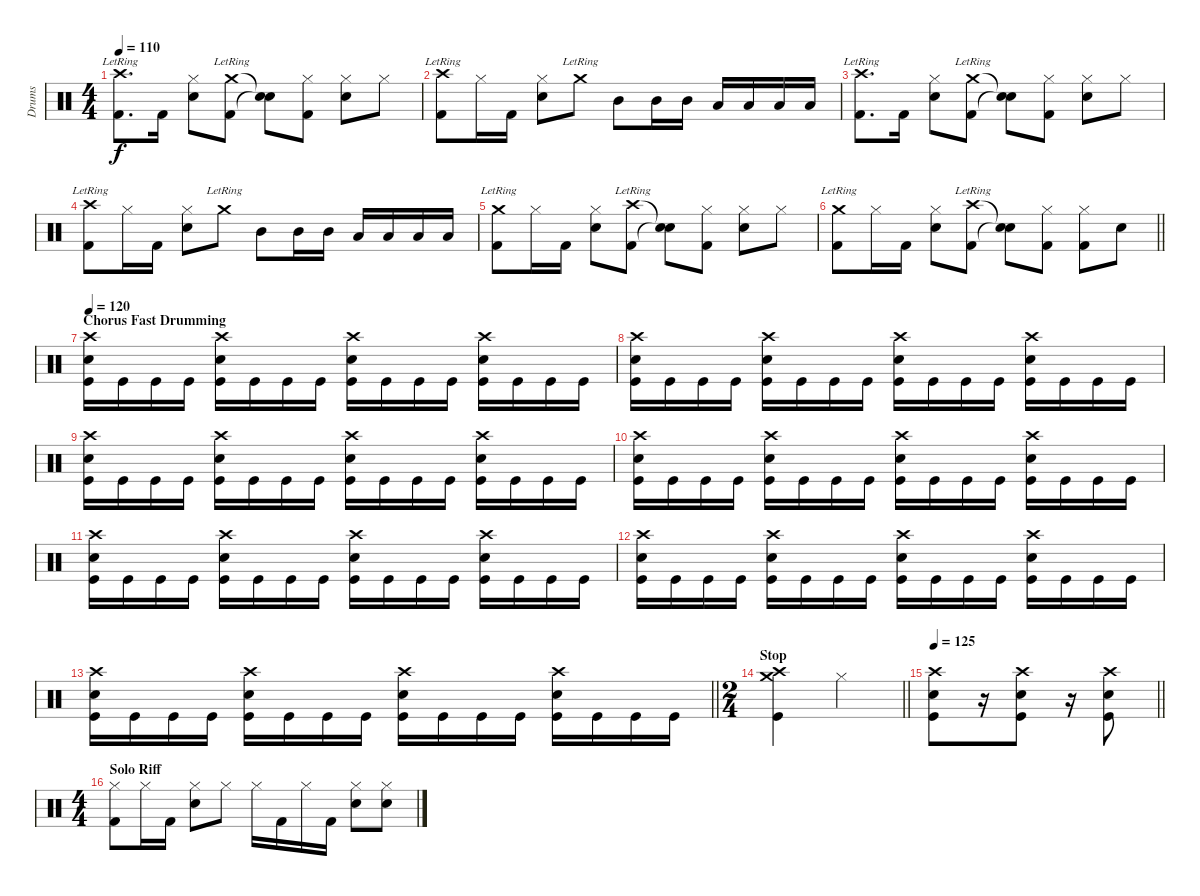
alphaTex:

\track ("Drums" "Drums") {instrument percussion}
\staff {score}
\articulation defaults
\ts (4 4)
\tempo 110
\clef neutral
\ks c
("Crash high (hit)"{lr} "Kick (hit) 2").8{d dy f} "Kick (hit) 2".16 ("Hi-Hat (closed)" "Snare (hit) 2").8 ("Crash medium (hit)"{lr} "Kick (hit) 2").8 ("Snare (hit)"{t} "Snare (hit)"{t}).8 ("Hi-Hat (closed)" "Kick (hit) 2").8 ("Hi-Hat (closed)" "Snare (hit) 2").8 "Hi-Hat (closed)".8 |
("Crash high (hit)"{lr} "Kick (hit) 2").8 "Hi-Hat (closed)".16 "Kick (hit) 2".16 ("Hi-Hat (closed)" "Snare (hit) 2").8 "Crash medium (hit)"{lr}.8 "Mid Tom (hit)".8 "Mid Tom (hit)".16 "Mid Tom (hit)".16 "Low Tom (hit)".16 "Low Tom (hit)".16 "Low Tom (hit)".16 "Low Tom (hit)".16 |
("Crash high (hit)"{lr} "Kick (hit) 2").8{d} "Kick (hit) 2".16 ("Hi-Hat (closed)" "Snare (hit) 2").8 ("Crash medium (hit)"{lr} "Kick (hit) 2").8 ("Snare (hit)"{t} "Snare (hit)"{t}).8 ("Hi-Hat (closed)" "Kick (hit) 2").8 ("Hi-Hat (closed)" "Snare (hit) 2").8 "Hi-Hat (closed)".8 |
("Crash high (hit)"{lr} "Kick (hit) 2").8 "Hi-Hat (closed)".16 "Kick (hit) 2".16 ("Hi-Hat (closed)" "Snare (hit) 2").8 "Crash medium (hit)"{lr}.8 "Mid Tom (hit)".8 "Mid Tom (hit)".16 "Mid Tom (hit)".16 "Low Tom (hit)".16 "Low Tom (hit)".16 "Low Tom (hit)".16 "Low Tom (hit)".16 |
("Crash medium (hit)"{lr} "Kick (hit) 2").8 "Hi-Hat (closed)".16 "Kick (hit) 2".16 ("Hi-Hat (closed)" "Snare (hit) 2").8 ("Crash high (hit)"{lr} "Kick (hit) 2").8 ("Snare (hit)"{t} "Snare (hit)"{t}).8 ("Hi-Hat (closed)" "Kick (hit) 2").8 ("Hi-Hat (closed)" "Snare (hit) 2").8 "Hi-Hat (closed)".8 |
\barLineRight lightlight
("Crash medium (hit)"{lr} "Kick (hit) 2").8 "Hi-Hat (closed)".16 "Kick (hit) 2".16 ("Hi-Hat (closed)" "Snare (hit) 2").8 ("Crash high (hit)"{lr} "Kick (hit) 2").8 ("Snare (hit)"{t} "Snare (hit)"{t}).8 ("Hi-Hat (closed)" "Kick (hit) 2").8 ("Hi-Hat (closed)" "Kick (hit) 2").8 "Snare (hit) 2".8 |
\section ("" "Chorus Fast Drumming")
\tempo 120
("Crash high (hit)" "Electric Snare (hit)" "Kick (hit)").16 "Kick (hit)".16 "Kick (hit)".16 "Kick (hit)".16 ("Crash high (hit)" "Electric Snare (hit)" "Kick (hit)").16 "Kick (hit)".16 "Kick (hit)".16 "Kick (hit)".16 ("Crash high (hit)" "Electric Snare (hit)" "Kick (hit)").16 "Kick (hit)".16 "Kick (hit)".16 "Kick (hit)".16 ("Crash high (hit)" "Electric Snare (hit)" "Kick (hit)").16 "Kick (hit)".16 "Kick (hit)".16 "Kick (hit)".16 |
("Crash high (hit)" "Electric Snare (hit)" "Kick (hit)").16 "Kick (hit)".16 "Kick (hit)".16 "Kick (hit)".16 ("Crash high (hit)" "Electric Snare (hit)" "Kick (hit)").16 "Kick (hit)".16 "Kick (hit)".16 "Kick (hit)".16 ("Crash high (hit)" "Electric Snare (hit)" "Kick (hit)").16 "Kick (hit)".16 "Kick (hit)".16 "Kick (hit)".16 ("Crash high (hit)" "Electric Snare (hit)" "Kick (hit)").16 "Kick (hit)".16 "Kick (hit)".16 "Kick (hit)".16 |
("Crash high (hit)" "Electric Snare (hit)" "Kick (hit)").16 "Kick (hit)".16 "Kick (hit)".16 "Kick (hit)".16 ("Crash high (hit)" "Electric Snare (hit)" "Kick (hit)").16 "Kick (hit)".16 "Kick (hit)".16 "Kick (hit)".16 ("Crash high (hit)" "Electric Snare (hit)" "Kick (hit)").16 "Kick (hit)".16 "Kick (hit)".16 "Kick (hit)".16 ("Crash high (hit)" "Electric Snare (hit)" "Kick (hit)").16 "Kick (hit)".16 "Kick (hit)".16 "Kick (hit)".16 |
("Crash high (hit)" "Electric Snare (hit)" "Kick (hit)").16 "Kick (hit)".16 "Kick (hit)".16 "Kick (hit)".16 ("Crash high (hit)" "Electric Snare (hit)" "Kick (hit)").16 "Kick (hit)".16 "Kick (hit)".16 "Kick (hit)".16 ("Crash high (hit)" "Electric Snare (hit)" "Kick (hit)").16 "Kick (hit)".16 "Kick (hit)".16 "Kick (hit)".16 ("Crash high (hit)" "Electric Snare (hit)" "Kick (hit)").16 "Kick (hit)".16 "Kick (hit)".16 "Kick (hit)".16 |
("Crash high (hit)" "Electric Snare (hit)" "Kick (hit)").16 "Kick (hit)".16 "Kick (hit)".16 "Kick (hit)".16 ("Crash high (hit)" "Electric Snare (hit)" "Kick (hit)").16 "Kick (hit)".16 "Kick (hit)".16 "Kick (hit)".16 ("Crash high (hit)" "Electric Snare (hit)" "Kick (hit)").16 "Kick (hit)".16 "Kick (hit)".16 "Kick (hit)".16 ("Crash high (hit)" "Electric Snare (hit)" "Kick (hit)").16 "Kick (hit)".16 "Kick (hit)".16 "Kick (hit)".16 |
("Crash high (hit)" "Electric Snare (hit)" "Kick (hit)").16 "Kick (hit)".16 "Kick (hit)".16 "Kick (hit)".16 ("Crash high (hit)" "Electric Snare (hit)" "Kick (hit)").16 "Kick (hit)".16 "Kick (hit)".16 "Kick (hit)".16 ("Crash high (hit)" "Electric Snare (hit)" "Kick (hit)").16 "Kick (hit)".16 "Kick (hit)".16 "Kick (hit)".16 ("Crash high (hit)" "Electric Snare (hit)" "Kick (hit)").16 "Kick (hit)".16 "Kick (hit)".16 "Kick (hit)".16 |
\barLineRight lightlight
("Crash high (hit)" "Electric Snare (hit)" "Kick (hit)").16 "Kick (hit)".16 "Kick (hit)".16 "Kick (hit)".16 ("Crash high (hit)" "Electric Snare (hit)" "Kick (hit)").16 "Kick (hit)".16 "Kick (hit)".16 "Kick (hit)".16 ("Crash high (hit)" "Electric Snare (hit)" "Kick (hit)").16 "Kick (hit)".16 "Kick (hit)".16 "Kick (hit)".16 ("Crash high (hit)" "Electric Snare (hit)" "Kick (hit)").16 "Kick (hit)".16 "Kick (hit)".16 "Kick (hit)".16 |
\ts (2 4)
\section ("" "Stop")
\barLineRight lightlight
("Crash high (hit)" "Crash medium (hit)" "Kick (hit)").4 "Hi-Hat (closed)".4 |
\tempo 125
\barLineRight lightlight
("Crash high (hit)" "Electric Snare (hit)" "Kick (hit)").8 r.16 ("Crash high (hit)" "Electric Snare (hit)" "Kick (hit)").8 r.16 ("Crash high (hit)" "Electric Snare (hit)" "Kick (hit)").8 |
\ts (4 4)
\section ("" "Solo Riff")
("Hi-Hat (closed)" "Kick (hit) 2").8 "Hi-Hat (closed)".16 "Kick (hit) 2".16 ("Hi-Hat (closed)" "Snare (hit) 2").8 "Hi-Hat (closed)".8 "Hi-Hat (closed)".16 "Kick (hit) 2".16 "Hi-Hat (closed)".16 "Kick (hit) 2".16 ("Hi-Hat (closed)" "Snare (hit) 2").8 ("Hi-Hat (closed)" "Snare (hit) 2").8
